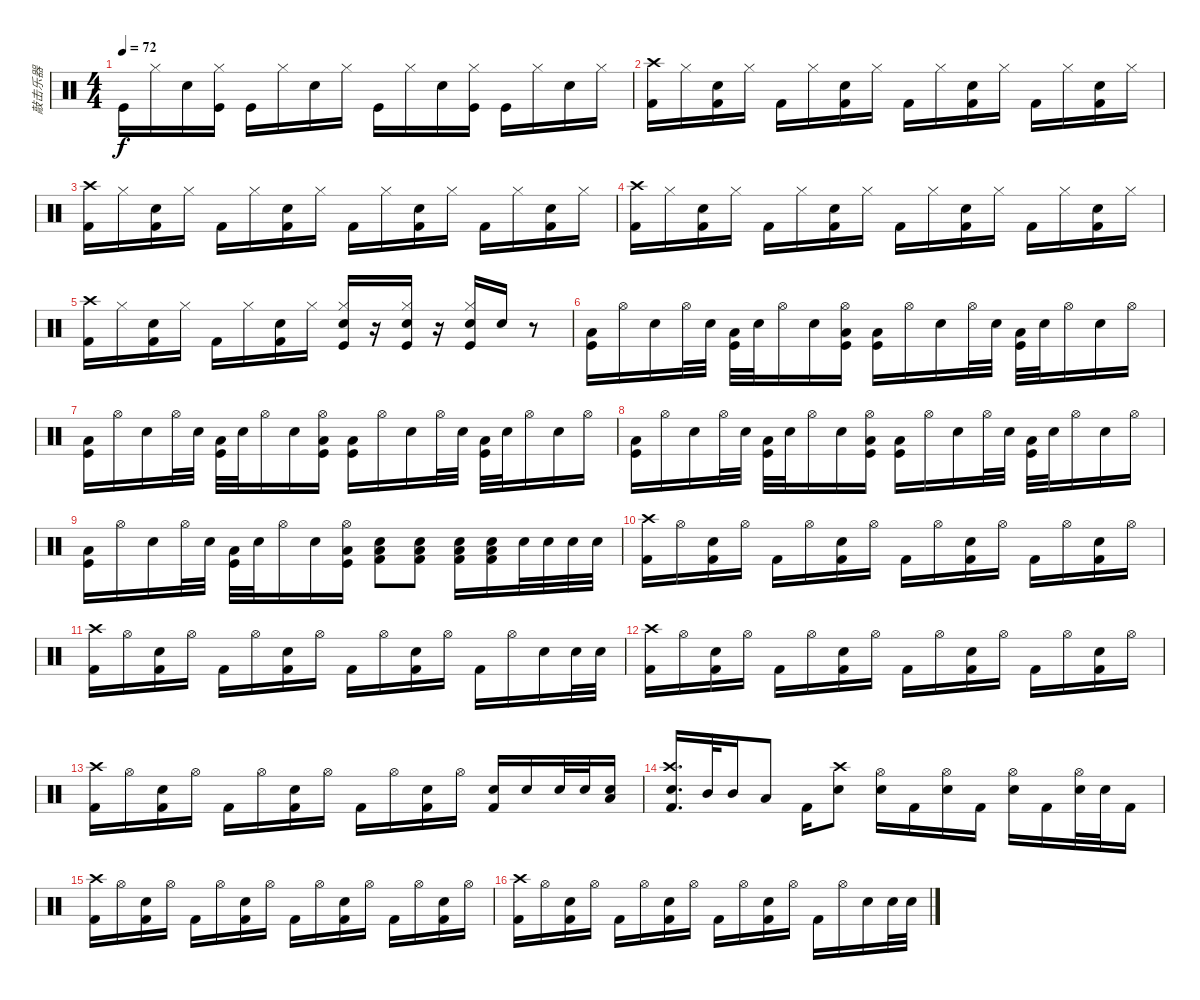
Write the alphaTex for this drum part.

\track ("敲击乐器" "敲击乐器") {instrument percussion}
\staff {score}
\articulation defaults
\ts (4 4)
\tempo 72
\clef neutral
\ks c "Kick (hit)".16{dy f} "Hi-Hat (closed)".16 "Snare (hit) 2".16
("Hi-Hat (closed)" "Kick (hit)").16 "Kick (hit)".16 "Hi-Hat (closed)".16 "Snare (hit) 2".16 "Hi-Hat (closed)".16 "Kick (hit)".16 "Hi-Hat (closed)".16 "Snare (hit) 2".16 ("Hi-Hat (closed)" "Kick (hit)").16 "Kick (hit)".16 "Hi-Hat (closed)".16 "Snare (hit) 2".16 "Hi-Hat (closed)".16 |
("Crash high (hit)" "Kick (hit) 2").16 "Hi-Hat (closed)".16 ("Snare (hit) 2" "Kick (hit) 2").16 "Hi-Hat (closed)".16 "Kick (hit) 2".16 "Hi-Hat (closed)".16 ("Snare (hit) 2" "Kick (hit) 2").16 "Hi-Hat (closed)".16 "Kick (hit) 2".16 "Hi-Hat (closed)".16 ("Snare (hit) 2" "Kick (hit) 2").16 "Hi-Hat (closed)".16 "Kick (hit) 2".16 "Hi-Hat (closed)".16 ("Snare (hit) 2" "Kick (hit) 2").16 "Hi-Hat (closed)".16 |
("Crash high (hit)" "Kick (hit) 2").16 "Hi-Hat (closed)".16 ("Snare (hit) 2" "Kick (hit) 2").16 "Hi-Hat (closed)".16 "Kick (hit) 2".16 "Hi-Hat (closed)".16 ("Snare (hit) 2" "Kick (hit) 2").16 "Hi-Hat (closed)".16 "Kick (hit) 2".16 "Hi-Hat (closed)".16 ("Snare (hit) 2" "Kick (hit) 2").16 "Hi-Hat (closed)".16 "Kick (hit) 2".16 "Hi-Hat (closed)".16 ("Snare (hit) 2" "Kick (hit) 2").16 "Hi-Hat (closed)".16 |
("Crash high (hit)" "Kick (hit) 2").16 "Hi-Hat (closed)".16 ("Snare (hit) 2" "Kick (hit) 2").16 "Hi-Hat (closed)".16 "Kick (hit) 2".16 "Hi-Hat (closed)".16 ("Snare (hit) 2" "Kick (hit) 2").16 "Hi-Hat (closed)".16 "Kick (hit) 2".16 "Hi-Hat (closed)".16 ("Snare (hit) 2" "Kick (hit) 2").16 "Hi-Hat (closed)".16 "Kick (hit) 2".16 "Hi-Hat (closed)".16 ("Snare (hit) 2" "Kick (hit) 2").16 "Hi-Hat (closed)".16 |
("Crash high (hit)" "Kick (hit) 2").16 "Hi-Hat (closed)".16 ("Snare (hit) 2" "Kick (hit) 2").16 "Hi-Hat (closed)".16 "Kick (hit) 2".16 "Hi-Hat (closed)".16 ("Snare (hit) 2" "Kick (hit) 2").16 "Hi-Hat (closed)".16 ("Hi-Hat (closed)" "Snare (hit) 2" "Kick (hit)").16 r.16 ("Hi-Hat (closed)" "Snare (hit) 2" "Kick (hit)").16 r.16 ("Hi-Hat (closed)" "Snare (hit) 2" "Kick (hit)").16 "Snare (hit) 2".16 r.8 |
("Low Floor Tom (hit)" "Kick (hit)").16 "Hi-Hat (open)".16 "Snare (hit) 2".16 "Hi-Hat (open)".32 "Snare (hit) 2".32 ("Low Floor Tom (hit)" "Kick (hit)").32 "Snare (hit) 2".32 "Hi-Hat (open)".16 "Snare (hit) 2".16 ("Hi-Hat (open)" "Low Floor Tom (hit)" "Kick (hit)").16 ("Low Floor Tom (hit)" "Kick (hit)").16 "Hi-Hat (open)".16 "Snare (hit) 2".16 "Hi-Hat (open)".32 "Snare (hit) 2".32 ("Low Floor Tom (hit)" "Kick (hit)").32 "Snare (hit) 2".32 "Hi-Hat (open)".16 "Snare (hit) 2".16 "Hi-Hat (open)".16 |
("Low Floor Tom (hit)" "Kick (hit)").16 "Hi-Hat (open)".16 "Snare (hit) 2".16 "Hi-Hat (open)".32 "Snare (hit) 2".32 ("Low Floor Tom (hit)" "Kick (hit)").32 "Snare (hit) 2".32 "Hi-Hat (open)".16 "Snare (hit) 2".16 ("Hi-Hat (open)" "Low Floor Tom (hit)" "Kick (hit)").16 ("Low Floor Tom (hit)" "Kick (hit)").16 "Hi-Hat (open)".16 "Snare (hit) 2".16 "Hi-Hat (open)".32 "Snare (hit) 2".32 ("Low Floor Tom (hit)" "Kick (hit)").32 "Snare (hit) 2".32 "Hi-Hat (open)".16 "Snare (hit) 2".16 "Hi-Hat (open)".16 |
("Low Floor Tom (hit)" "Kick (hit)").16 "Hi-Hat (open)".16 "Snare (hit) 2".16 "Hi-Hat (open)".32 "Snare (hit) 2".32 ("Low Floor Tom (hit)" "Kick (hit)").32 "Snare (hit) 2".32 "Hi-Hat (open)".16 "Snare (hit) 2".16 ("Hi-Hat (open)" "Low Floor Tom (hit)" "Kick (hit)").16 ("Low Floor Tom (hit)" "Kick (hit)").16 "Hi-Hat (open)".16 "Snare (hit) 2".16 "Hi-Hat (open)".32 "Snare (hit) 2".32 ("Low Floor Tom (hit)" "Kick (hit)").32 "Snare (hit) 2".32 "Hi-Hat (open)".16 "Snare (hit) 2".16 "Hi-Hat (open)".16 |
("Low Floor Tom (hit)" "Kick (hit)").16 "Hi-Hat (open)".16 "Snare (hit) 2".16 "Hi-Hat (open)".32 "Snare (hit) 2".32 ("Low Floor Tom (hit)" "Kick (hit)").32 "Snare (hit) 2".32 "Hi-Hat (open)".16 "Snare (hit) 2".16 ("Hi-Hat (open)" "Low Floor Tom (hit)" "Kick (hit)").16 ("Low Floor Tom (hit)" "Snare (hit) 2" "Kick (hit) 2").8 ("Low Floor Tom (hit)" "Snare (hit) 2" "Kick (hit) 2").8 ("Low Floor Tom (hit)" "Snare (hit) 2" "Kick (hit) 2").16 ("Low Floor Tom (hit)" "Snare (hit) 2" "Kick (hit) 2").16 "Snare (hit) 2".32 "Snare (hit) 2".32 "Snare (hit) 2".32 "Snare (hit) 2".32 |
("Crash high (hit)" "Kick (hit) 2").16 "Hi-Hat (open)".16 ("Snare (hit) 2" "Kick (hit) 2").16 "Hi-Hat (open)".16 "Kick (hit) 2".16 "Hi-Hat (open)".16 ("Snare (hit) 2" "Kick (hit) 2").16 "Hi-Hat (open)".16 "Kick (hit) 2".16 "Hi-Hat (open)".16 ("Snare (hit) 2" "Kick (hit) 2").16 "Hi-Hat (open)".16 "Kick (hit) 2".16 "Hi-Hat (open)".16 ("Snare (hit) 2" "Kick (hit) 2").16 "Hi-Hat (open)".16 |
("Crash high (hit)" "Kick (hit) 2").16 "Hi-Hat (open)".16 ("Snare (hit) 2" "Kick (hit) 2").16 "Hi-Hat (open)".16 "Kick (hit) 2".16 "Hi-Hat (open)".16 ("Snare (hit) 2" "Kick (hit) 2").16 "Hi-Hat (open)".16 "Kick (hit) 2".16 "Hi-Hat (open)".16 ("Snare (hit) 2" "Kick (hit) 2").16 "Hi-Hat (open)".16 "Kick (hit) 2".16 "Hi-Hat (open)".16 "Snare (hit) 2".16 "Snare (hit) 2".32 "Snare (hit) 2".32 |
("Crash high (hit)" "Kick (hit) 2").16 "Hi-Hat (open)".16 ("Snare (hit) 2" "Kick (hit) 2").16 "Hi-Hat (open)".16 "Kick (hit) 2".16 "Hi-Hat (open)".16 ("Snare (hit) 2" "Kick (hit) 2").16 "Hi-Hat (open)".16 "Kick (hit) 2".16 "Hi-Hat (open)".16 ("Snare (hit) 2" "Kick (hit) 2").16 "Hi-Hat (open)".16 "Kick (hit) 2".16 "Hi-Hat (open)".16 ("Snare (hit) 2" "Kick (hit) 2").16 "Hi-Hat (open)".16 |
("Crash high (hit)" "Kick (hit) 2").16 "Hi-Hat (open)".16 ("Snare (hit) 2" "Kick (hit) 2").16 "Hi-Hat (open)".16 "Kick (hit) 2".16 "Hi-Hat (open)".16 ("Snare (hit) 2" "Kick (hit) 2").16 "Hi-Hat (open)".16 "Kick (hit) 2".16 "Hi-Hat (open)".16 ("Snare (hit) 2" "Kick (hit) 2").16 "Hi-Hat (open)".16 ("Snare (hit) 2" "Kick (hit) 2").16 "Snare (hit) 2".16 "Snare (hit) 2".32 "Snare (hit) 2".32 ("Snare (hit) 2" "Low Floor Tom (hit)").16 |
("Crash high (hit)" "Snare (hit) 2" "Kick (hit) 2").16{d} "Mid Tom (hit)".32 "Mid Tom (hit)".16 "Low Tom (hit)".8 "Kick (hit) 2".16 ("Crash high (hit)" "Snare (hit) 2").8 ("Hi-Hat (open)" "Snare (hit) 2").16 "Kick (hit) 2".16 ("Hi-Hat (open)" "Snare (hit) 2").16 "Kick (hit) 2".16 ("Hi-Hat (open)" "Snare (hit) 2").16 "Kick (hit) 2".16 ("Hi-Hat (open)" "Snare (hit) 2").32 "Snare (hit) 2".32 "Kick (hit) 2".16 |
("Crash high (hit)" "Kick (hit) 2").16 "Hi-Hat (open)".16 ("Snare (hit) 2" "Kick (hit) 2").16 "Hi-Hat (open)".16 "Kick (hit) 2".16 "Hi-Hat (open)".16 ("Snare (hit) 2" "Kick (hit) 2").16 "Hi-Hat (open)".16 "Kick (hit) 2".16 "Hi-Hat (open)".16 ("Snare (hit) 2" "Kick (hit) 2").16 "Hi-Hat (open)".16 "Kick (hit) 2".16 "Hi-Hat (open)".16 ("Snare (hit) 2" "Kick (hit) 2").16 "Hi-Hat (open)".16 |
("Crash high (hit)" "Kick (hit) 2").16 "Hi-Hat (open)".16 ("Snare (hit) 2" "Kick (hit) 2").16 "Hi-Hat (open)".16 "Kick (hit) 2".16 "Hi-Hat (open)".16 ("Snare (hit) 2" "Kick (hit) 2").16 "Hi-Hat (open)".16 "Kick (hit) 2".16 "Hi-Hat (open)".16 ("Snare (hit) 2" "Kick (hit) 2").16 "Hi-Hat (open)".16 "Kick (hit) 2".16 "Hi-Hat (open)".16 "Snare (hit) 2".16 "Snare (hit) 2".32 "Snare (hit) 2".32
